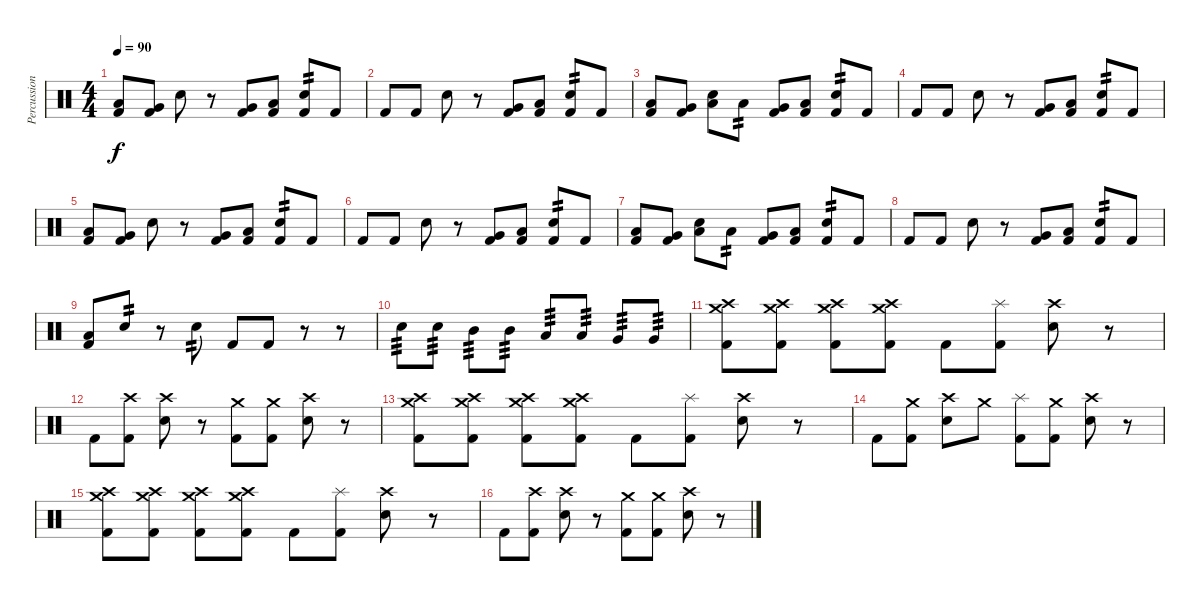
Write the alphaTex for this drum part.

\track ("Percussion" "Percussion") {instrument percussion}
\staff {score}
\articulation defaults
\ts (4 4)
\tempo 90
\clef neutral
\ks c
("Kick (hit) 2" "Low Floor Tom (hit)").8{dy f} ("Kick (hit) 2" "Very Low Tom (hit)").8 "Snare (hit) 2".8 r.8 ("Kick (hit) 2" "Very Low Tom (hit)").8 ("Kick (hit) 2" "Low Tom (hit)").8 ("Kick (hit) 2" "Snare (hit) 2").8{tp 2} "Kick (hit) 2".8 |
"Kick (hit) 2".8 "Kick (hit) 2".8 "Snare (hit) 2".8 r.8 ("Kick (hit) 2" "Very Low Tom (hit)").8 ("Kick (hit) 2" "Low Tom (hit)").8 ("Kick (hit) 2" "Snare (hit) 2").8{tp 2} "Kick (hit) 2".8 |
("Kick (hit) 2" "Low Floor Tom (hit)").8 ("Kick (hit) 2" "Very Low Tom (hit)").8 ("Snare (hit) 2" "Low Tom (hit)").8 "Low Tom (hit)".8{tp 2} ("Kick (hit) 2" "Very Low Tom (hit)").8 ("Kick (hit) 2" "Low Tom (hit)").8 ("Kick (hit) 2" "Snare (hit) 2").8{tp 2} "Kick (hit) 2".8 |
"Kick (hit) 2".8 "Kick (hit) 2".8 "Snare (hit) 2".8 r.8 ("Kick (hit) 2" "Very Low Tom (hit)").8 ("Kick (hit) 2" "Low Tom (hit)").8 ("Kick (hit) 2" "Snare (hit) 2").8{tp 2} "Kick (hit) 2".8 |
("Kick (hit) 2" "Low Floor Tom (hit)").8 ("Kick (hit) 2" "Very Low Tom (hit)").8 "Snare (hit) 2".8 r.8 ("Kick (hit) 2" "Very Low Tom (hit)").8 ("Kick (hit) 2" "Low Tom (hit)").8 ("Kick (hit) 2" "Snare (hit) 2").8{tp 2} "Kick (hit) 2".8 |
"Kick (hit) 2".8 "Kick (hit) 2".8 "Snare (hit) 2".8 r.8 ("Kick (hit) 2" "Very Low Tom (hit)").8 ("Kick (hit) 2" "Low Tom (hit)").8 ("Kick (hit) 2" "Snare (hit) 2").8{tp 2} "Kick (hit) 2".8 |
("Kick (hit) 2" "Low Floor Tom (hit)").8 ("Kick (hit) 2" "Very Low Tom (hit)").8 ("Snare (hit) 2" "Low Tom (hit)").8 "Low Tom (hit)".8{tp 2} ("Kick (hit) 2" "Very Low Tom (hit)").8 ("Kick (hit) 2" "Low Tom (hit)").8 ("Kick (hit) 2" "Snare (hit) 2").8{tp 2} "Kick (hit) 2".8 |
"Kick (hit) 2".8 "Kick (hit) 2".8 "Snare (hit) 2".8 r.8 ("Kick (hit) 2" "Very Low Tom (hit)").8 ("Kick (hit) 2" "Low Tom (hit)").8 ("Kick (hit) 2" "Snare (hit) 2").8{tp 2} "Kick (hit) 2".8 |
("Kick (hit) 2" "Low Tom (hit)").8 "Snare (hit) 2".8{tp 2} r.8 "Snare (hit) 2".8{tp 2} "Kick (hit) 2".8 "Kick (hit) 2".8 r.8 r.8 |
"Snare (hit) 2".8{tp 3} "Snare (hit) 2".8{tp 3} "Mid Tom (hit)".8{tp 3} "Mid Tom (hit)".8{tp 3} "Low Tom (hit)".8{tp 3} "Low Tom (hit)".8{tp 3} "Very Low Tom (hit)".8{tp 3} "Very Low Tom (hit)".8{tp 3} |
("Kick (hit) 2" "Crash medium (hit)" "Crash high (hit)").8 ("Kick (hit) 2" "Crash medium (hit)" "Crash high (hit)").8 ("Kick (hit) 2" "Crash medium (hit)" "Crash high (hit)").8 ("Kick (hit) 2" "Crash medium (hit)" "Crash high (hit)").8 "Kick (hit) 2".8 ("Kick (hit) 2" "Splash (hit)").8 ("Snare (hit) 2" "Crash high (hit)").8 r.8 |
"Kick (hit) 2".8 ("Kick (hit) 2" "Crash high (hit)").8 ("Snare (hit) 2" "Crash high (hit)").8 r.8 ("Kick (hit) 2" "Crash medium (hit)").8 ("Kick (hit) 2" "Crash medium (hit)").8 ("Snare (hit) 2" "Crash high (hit)").8 r.8 |
("Kick (hit) 2" "Crash medium (hit)" "Crash high (hit)").8 ("Kick (hit) 2" "Crash medium (hit)" "Crash high (hit)").8 ("Kick (hit) 2" "Crash medium (hit)" "Crash high (hit)").8 ("Kick (hit) 2" "Crash medium (hit)" "Crash high (hit)").8 "Kick (hit) 2".8 ("Kick (hit) 2" "Splash (hit)").8 ("Snare (hit) 2" "Crash high (hit)").8 r.8 |
"Kick (hit) 2".8 ("Kick (hit) 2" "Crash medium (hit)").8 ("Snare (hit) 2" "Crash high (hit)").8 "Crash medium (hit)".8 ("Kick (hit) 2" "Splash (hit)").8 ("Kick (hit) 2" "Crash medium (hit)").8 ("Snare (hit) 2" "Crash high (hit)").8 r.8 |
("Kick (hit) 2" "Crash medium (hit)" "Crash high (hit)").8 ("Kick (hit) 2" "Crash medium (hit)" "Crash high (hit)").8 ("Kick (hit) 2" "Crash medium (hit)" "Crash high (hit)").8 ("Kick (hit) 2" "Crash medium (hit)" "Crash high (hit)").8 "Kick (hit) 2".8 ("Kick (hit) 2" "Splash (hit)").8 ("Snare (hit) 2" "Crash high (hit)").8 r.8 |
"Kick (hit) 2".8 ("Kick (hit) 2" "Crash high (hit)").8 ("Snare (hit) 2" "Crash high (hit)").8 r.8 ("Kick (hit) 2" "Crash medium (hit)").8 ("Kick (hit) 2" "Crash medium (hit)").8 ("Snare (hit) 2" "Crash high (hit)").8 r.8
